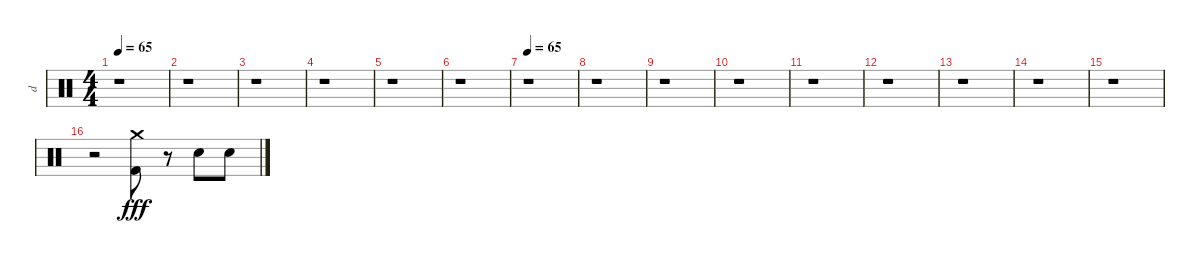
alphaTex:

\track ("d" "d") {instrument percussion}
\staff {score}
\articulation defaults
\ts (4 4)
\tempo 65
\clef neutral
\ks c
r.1{dy fff} |
r.1 |
r.1 |
r.1 |
r.1 |
r.1 |
\tempo 65
r.1 |
r.1 |
r.1 |
r.1 |
r.1 |
r.1 |
r.1 |
r.1 |
r.1 |
r.2 ("Crash medium (hit)" "Kick (hit) 2").8 r.8 "Electric Snare (hit)".8 "Electric Snare (hit)".8
